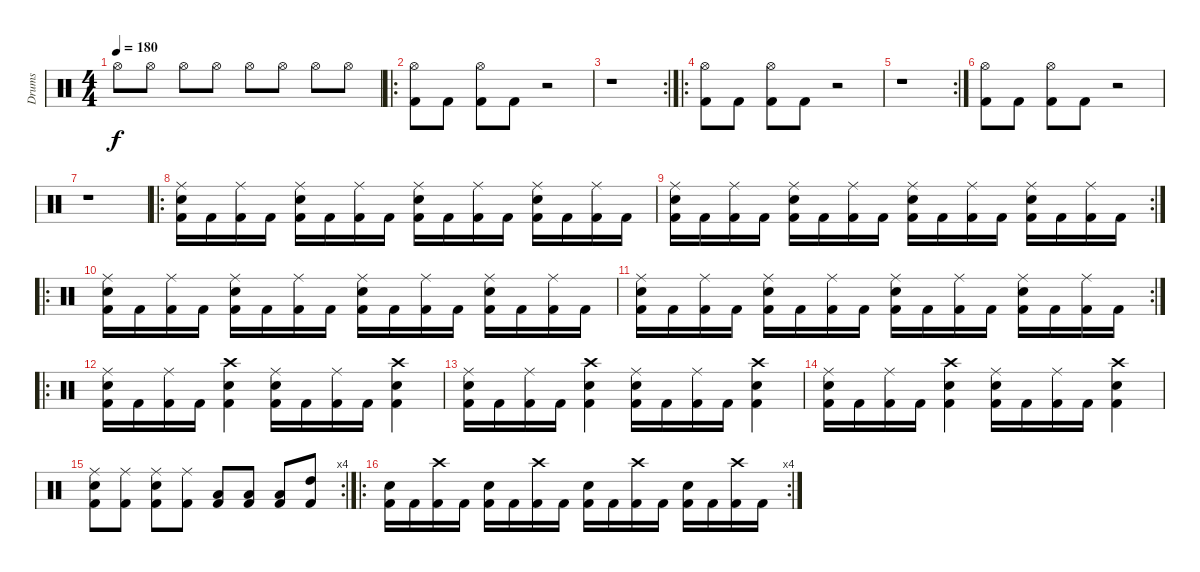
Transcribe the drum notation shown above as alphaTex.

\track ("Drums" "Drums") {instrument percussion}
\staff {score}
\articulation defaults
\ts (4 4)
\tempo 180
\clef neutral
\ks c "Hi-Hat (open)".8{dy f} "Hi-Hat (open)".8 "Hi-Hat (open)".8 "Hi-Hat (open)".8 "Hi-Hat (open)".8 "Hi-Hat (open)".8 "Hi-Hat (open)".8 "Hi-Hat (open)".8
|
\ro
("Hi-Hat (open)" "Kick (hit) 2").8 "Kick (hit) 2".8 ("Hi-Hat (open)" "Kick (hit) 2").8 "Kick (hit) 2".8 r.2 |
\rc 2
r.1 |
\ro
("Hi-Hat (open)" "Kick (hit) 2").8 "Kick (hit) 2".8 ("Hi-Hat (open)" "Kick (hit) 2").8 "Kick (hit) 2".8 r.2 |
\rc 2
r.1 |
("Hi-Hat (open)" "Kick (hit) 2").8 "Kick (hit) 2".8 ("Hi-Hat (open)" "Kick (hit) 2").8 "Kick (hit) 2".8 r.2 |
r.1 |
\ro
("Electric Snare (hit)" "Ride (middle)" "Kick (hit) 2").16 "Kick (hit) 2".16 ("Ride (middle)" "Kick (hit) 2").16 "Kick (hit) 2".16 ("Electric Snare (hit)" "Ride (middle)" "Kick (hit) 2").16 "Kick (hit) 2".16 ("Ride (middle)" "Kick (hit) 2").16 "Kick (hit) 2".16 ("Electric Snare (hit)" "Ride (middle)" "Kick (hit) 2").16 "Kick (hit) 2".16 ("Ride (middle)" "Kick (hit) 2").16 "Kick (hit) 2".16 ("Electric Snare (hit)" "Ride (middle)" "Kick (hit) 2").16 "Kick (hit) 2".16 ("Ride (middle)" "Kick (hit) 2").16 "Kick (hit) 2".16 |
\rc 2
("Electric Snare (hit)" "Ride (middle)" "Kick (hit) 2").16 "Kick (hit) 2".16 ("Ride (middle)" "Kick (hit) 2").16 "Kick (hit) 2".16 ("Electric Snare (hit)" "Ride (middle)" "Kick (hit) 2").16 "Kick (hit) 2".16 ("Ride (middle)" "Kick (hit) 2").16 "Kick (hit) 2".16 ("Electric Snare (hit)" "Ride (middle)" "Kick (hit) 2").16 "Kick (hit) 2".16 ("Ride (middle)" "Kick (hit) 2").16 "Kick (hit) 2".16 ("Electric Snare (hit)" "Ride (middle)" "Kick (hit) 2").16 "Kick (hit) 2".16 ("Ride (middle)" "Kick (hit) 2").16 "Kick (hit) 2".16 |
\ro
("Electric Snare (hit)" "Ride (middle)" "Kick (hit) 2").16 "Kick (hit) 2".16 ("Ride (middle)" "Kick (hit) 2").16 "Kick (hit) 2".16 ("Electric Snare (hit)" "Ride (middle)" "Kick (hit) 2").16 "Kick (hit) 2".16 ("Ride (middle)" "Kick (hit) 2").16 "Kick (hit) 2".16 ("Electric Snare (hit)" "Ride (middle)" "Kick (hit) 2").16 "Kick (hit) 2".16 ("Ride (middle)" "Kick (hit) 2").16 "Kick (hit) 2".16 ("Electric Snare (hit)" "Ride (middle)" "Kick (hit) 2").16 "Kick (hit) 2".16 ("Ride (middle)" "Kick (hit) 2").16 "Kick (hit) 2".16 |
\rc 2
("Electric Snare (hit)" "Ride (middle)" "Kick (hit) 2").16 "Kick (hit) 2".16 ("Ride (middle)" "Kick (hit) 2").16 "Kick (hit) 2".16 ("Electric Snare (hit)" "Ride (middle)" "Kick (hit) 2").16 "Kick (hit) 2".16 ("Ride (middle)" "Kick (hit) 2").16 "Kick (hit) 2".16 ("Electric Snare (hit)" "Ride (middle)" "Kick (hit) 2").16 "Kick (hit) 2".16 ("Ride (middle)" "Kick (hit) 2").16 "Kick (hit) 2".16 ("Electric Snare (hit)" "Ride (middle)" "Kick (hit) 2").16 "Kick (hit) 2".16 ("Ride (middle)" "Kick (hit) 2").16 "Kick (hit) 2".16 |
\ro
("Electric Snare (hit)" "Ride (middle)" "Kick (hit) 2").16 "Kick (hit) 2".16 ("Ride (middle)" "Kick (hit) 2").16 "Kick (hit) 2".16 ("Electric Snare (hit)" "Crash high (hit)" "Kick (hit) 2").4 ("Electric Snare (hit)" "Ride (middle)" "Kick (hit) 2").16 "Kick (hit) 2".16 ("Ride (middle)" "Kick (hit) 2").16 "Kick (hit) 2".16 ("Electric Snare (hit)" "Crash high (hit)" "Kick (hit) 2").4 |
("Electric Snare (hit)" "Ride (middle)" "Kick (hit) 2").16 "Kick (hit) 2".16 ("Ride (middle)" "Kick (hit) 2").16 "Kick (hit) 2".16 ("Electric Snare (hit)" "Crash high (hit)" "Kick (hit) 2").4 ("Electric Snare (hit)" "Ride (middle)" "Kick (hit) 2").16 "Kick (hit) 2".16 ("Ride (middle)" "Kick (hit) 2").16 "Kick (hit) 2".16 ("Electric Snare (hit)" "Crash high (hit)" "Kick (hit) 2").4 |
("Electric Snare (hit)" "Ride (middle)" "Kick (hit) 2").16 "Kick (hit) 2".16 ("Ride (middle)" "Kick (hit) 2").16 "Kick (hit) 2".16 ("Electric Snare (hit)" "Crash high (hit)" "Kick (hit) 2").4 ("Electric Snare (hit)" "Ride (middle)" "Kick (hit) 2").16 "Kick (hit) 2".16 ("Ride (middle)" "Kick (hit) 2").16 "Kick (hit) 2".16 ("Electric Snare (hit)" "Crash high (hit)" "Kick (hit) 2").4 |
\rc 4
("Electric Snare (hit)" "Ride (middle)" "Kick (hit) 2").8 ("Ride (middle)" "Kick (hit) 2").8 ("Electric Snare (hit)" "Ride (middle)" "Kick (hit) 2").8 ("Ride (middle)" "Kick (hit) 2").8 ("Low Floor Tom (hit)" "Kick (hit) 2").8 ("Low Tom (hit)" "Kick (hit) 2").8 ("Low Tom (hit)" "Kick (hit) 2").8 ("High Tom (hit)" "Kick (hit) 2").8 |
\ro
\rc 4
("Electric Snare (hit)" "Kick (hit) 2").16 "Kick (hit) 2".16 ("Crash high (hit)" "Kick (hit) 2").16 "Kick (hit) 2".16 ("Electric Snare (hit)" "Kick (hit) 2").16 "Kick (hit) 2".16 ("Crash high (hit)" "Kick (hit) 2").16 "Kick (hit) 2".16 ("Electric Snare (hit)" "Kick (hit) 2").16 "Kick (hit) 2".16 ("Crash high (hit)" "Kick (hit) 2").16 "Kick (hit) 2".16 ("Electric Snare (hit)" "Kick (hit) 2").16 "Kick (hit) 2".16 ("Crash high (hit)" "Kick (hit) 2").16 "Kick (hit) 2".16
